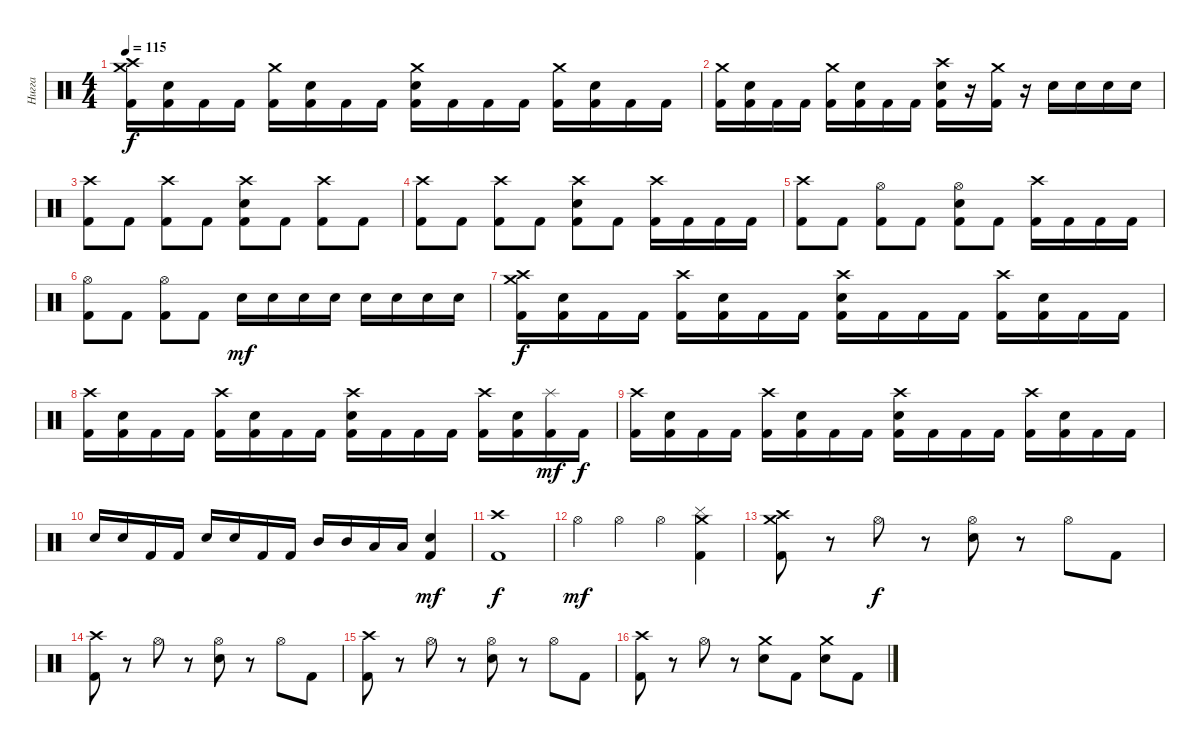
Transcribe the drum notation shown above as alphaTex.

\track ("Нигга" "Нигга") {instrument percussion}
\staff
\articulation defaults
\ts (4 4)
\tempo 115
\clef neutral
\ks c
("Crash medium (hit)" "Crash high (hit)" "Kick (hit) 2").16{dy f} ("Electric Snare (hit)" "Kick (hit) 2").16 "Kick (hit) 2".16 "Kick (hit) 2".16 ("Crash medium (hit)" "Kick (hit) 2").16 ("Electric Snare (hit)" "Kick (hit) 2").16 "Kick (hit) 2".16 "Kick (hit) 2".16 ("Crash medium (hit)" "Electric Snare (hit)" "Kick (hit) 2").16 "Kick (hit) 2".16 "Kick (hit) 2".16 "Kick (hit) 2".16 ("Crash medium (hit)" "Kick (hit) 2").16 ("Electric Snare (hit)" "Kick (hit) 2").16 "Kick (hit) 2".16 "Kick (hit) 2".16 |
("Crash medium (hit)" "Kick (hit) 2").16 ("Electric Snare (hit)" "Kick (hit) 2").16 "Kick (hit) 2".16 "Kick (hit) 2".16 ("Crash medium (hit)" "Kick (hit) 2").16 ("Electric Snare (hit)" "Kick (hit) 2").16 "Kick (hit) 2".16 "Kick (hit) 2".16 ("Crash high (hit)" "Electric Snare (hit)" "Kick (hit) 2").16 r.16 ("Crash medium (hit)" "Kick (hit) 2").16 r.16 "Electric Snare (hit)".16 "Electric Snare (hit)".16 "Electric Snare (hit)".16 "Electric Snare (hit)".16 |
("Crash high (hit)" "Kick (hit) 2").8 "Kick (hit) 2".8 ("Crash high (hit)" "Kick (hit) 2").8 "Kick (hit) 2".8 ("Crash high (hit)" "Electric Snare (hit)" "Kick (hit) 2").8 "Kick (hit) 2".8 ("Crash high (hit)" "Kick (hit) 2").8 "Kick (hit) 2".8 |
("Crash high (hit)" "Kick (hit) 2").8 "Kick (hit) 2".8 ("Crash high (hit)" "Kick (hit) 2").8 "Kick (hit) 2".8 ("Crash high (hit)" "Electric Snare (hit)" "Kick (hit) 2").8 "Kick (hit) 2".8 ("Crash high (hit)" "Kick (hit) 2").16 "Kick (hit) 2".16 "Kick (hit) 2".16 "Kick (hit) 2".16 |
("Crash high (hit)" "Kick (hit) 2").8 "Kick (hit) 2".8 ("Hi-Hat (open)" "Kick (hit) 2").8 "Kick (hit) 2".8 ("Hi-Hat (open)" "Electric Snare (hit)" "Kick (hit) 2").8 "Kick (hit) 2".8 ("Crash high (hit)" "Kick (hit) 2").16 "Kick (hit) 2".16 "Kick (hit) 2".16 "Kick (hit) 2".16 |
("Hi-Hat (open)" "Kick (hit) 2").8 "Kick (hit) 2".8 ("Hi-Hat (open)" "Kick (hit) 2").8 "Kick (hit) 2".8 "Electric Snare (hit)".16{dy mf} "Electric Snare (hit)".16 "Electric Snare (hit)".16 "Electric Snare (hit)".16 "Electric Snare (hit)".16 "Electric Snare (hit)".16 "Electric Snare (hit)".16 "Electric Snare (hit)".16 |
("Crash high (hit)" "Crash medium (hit)" "Kick (hit) 2").16{dy f} ("Electric Snare (hit)" "Kick (hit) 2").16 "Kick (hit) 2".16 "Kick (hit) 2".16 ("Crash high (hit)" "Kick (hit) 2").16 ("Electric Snare (hit)" "Kick (hit) 2").16 "Kick (hit) 2".16 "Kick (hit) 2".16 ("Crash high (hit)" "Electric Snare (hit)" "Kick (hit) 2").16 "Kick (hit) 2".16 "Kick (hit) 2".16 "Kick (hit) 2".16 ("Crash high (hit)" "Kick (hit) 2").16 ("Electric Snare (hit)" "Kick (hit) 2").16 "Kick (hit) 2".16 "Kick (hit) 2".16 |
("Crash high (hit)" "Kick (hit) 2").16 ("Electric Snare (hit)" "Kick (hit) 2").16 "Kick (hit) 2".16 "Kick (hit) 2".16 ("Crash high (hit)" "Kick (hit) 2").16 ("Electric Snare (hit)" "Kick (hit) 2").16 "Kick (hit) 2".16 "Kick (hit) 2".16 ("Crash high (hit)" "Electric Snare (hit)" "Kick (hit) 2").16 "Kick (hit) 2".16 "Kick (hit) 2".16 "Kick (hit) 2".16 ("Crash high (hit)" "Kick (hit) 2").16 ("Electric Snare (hit)" "Kick (hit) 2").16 ("Splash (hit)" "Kick (hit) 2").16{dy mf} "Kick (hit) 2".16{dy f} |
("Crash high (hit)" "Kick (hit) 2").16 ("Electric Snare (hit)" "Kick (hit) 2").16 "Kick (hit) 2".16 "Kick (hit) 2".16 ("Crash high (hit)" "Kick (hit) 2").16 ("Electric Snare (hit)" "Kick (hit) 2").16 "Kick (hit) 2".16 "Kick (hit) 2".16 ("Crash high (hit)" "Electric Snare (hit)" "Kick (hit) 2").16 "Kick (hit) 2".16 "Kick (hit) 2".16 "Kick (hit) 2".16 ("Crash high (hit)" "Kick (hit) 2").16 ("Electric Snare (hit)" "Kick (hit) 2").16 "Kick (hit) 2".16 "Kick (hit) 2".16 |
"Electric Snare (hit)".16 "Electric Snare (hit)".16 "Kick (hit) 2".16 "Kick (hit) 2".16 "Electric Snare (hit)".16 "Electric Snare (hit)".16 "Kick (hit) 2".16 "Kick (hit) 2".16 "Mid Tom (hit)".16 "Mid Tom (hit)".16 "Low Tom (hit)".16 "Low Tom (hit)".16 ("Electric Snare (hit)" "Kick (hit) 2").4{dy mf} |
("Crash high (hit)" "Kick (hit) 2").1{dy f} |
"Hi-Hat (open)".4{dy mf} "Hi-Hat (open)".4 "Hi-Hat (open)".4 ("Crash medium (hit)" "Cymbal (hit)" "Kick (hit) 2").4 |
("Crash high (hit)" "Crash medium (hit)" "Kick (hit) 2").8 r.8 "Hi-Hat (open)".8{dy f} r.8 ("Hi-Hat (open)" "Electric Snare (hit)").8 r.8 "Hi-Hat (open)".8 "Kick (hit) 2".8 |
("Crash high (hit)" "Kick (hit) 2").8 r.8 "Hi-Hat (open)".8 r.8 ("Hi-Hat (open)" "Electric Snare (hit)").8 r.8 "Hi-Hat (open)".8 "Kick (hit) 2".8 |
("Crash high (hit)" "Kick (hit) 2").8 r.8 "Hi-Hat (open)".8 r.8 ("Hi-Hat (open)" "Electric Snare (hit)").8 r.8 "Hi-Hat (open)".8 "Kick (hit) 2".8 |
("Crash high (hit)" "Kick (hit) 2").8 r.8 "Hi-Hat (open)".8 r.8 ("Crash medium (hit)" "Electric Snare (hit)").8 "Kick (hit) 2".8 ("Crash medium (hit)" "Electric Snare (hit)").8 "Kick (hit) 2".8
